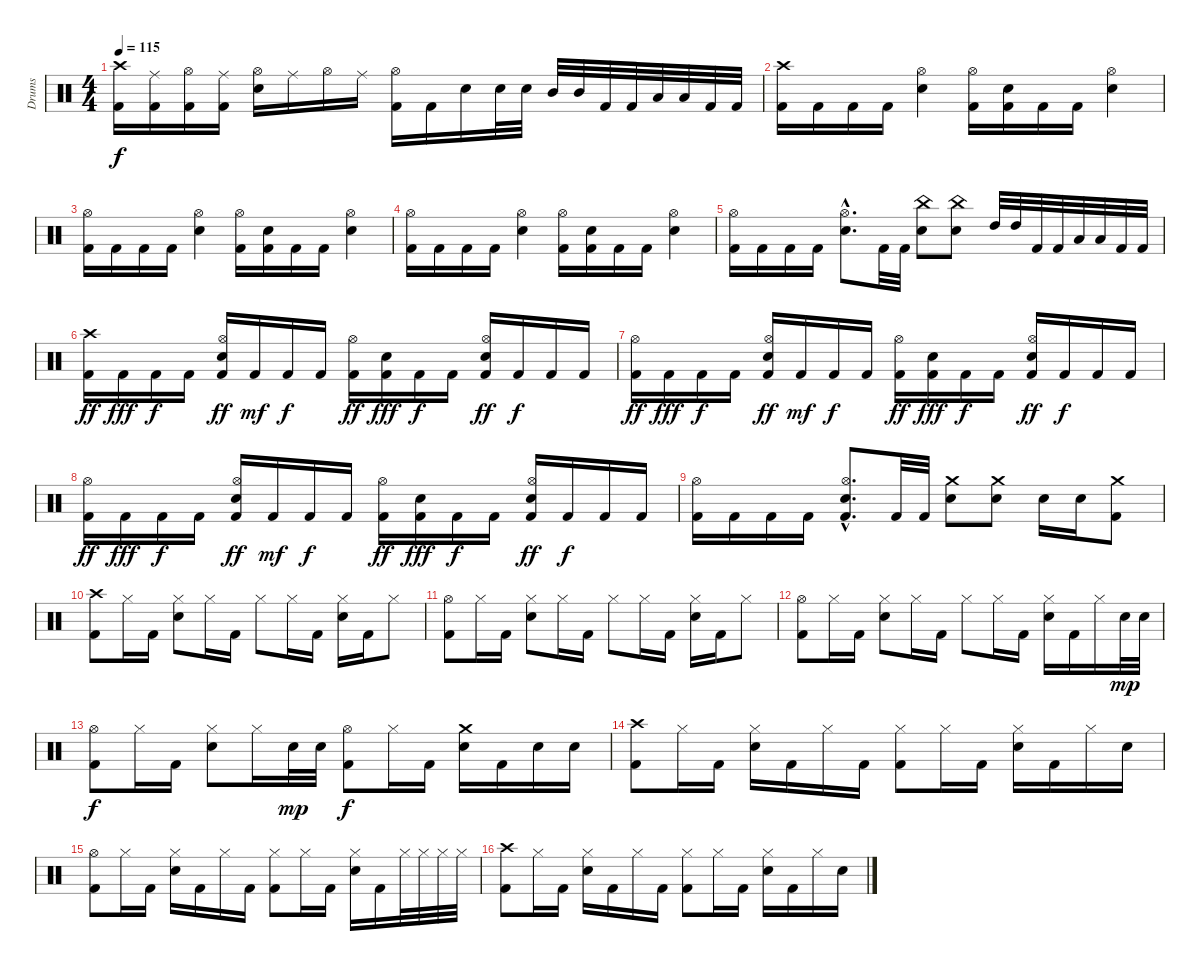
\track ("Drums" "Drums") {instrument percussion}
\staff {score}
\articulation defaults
\ts (4 4)
\tempo 115
\clef neutral
\ks c
("Crash high (hit)" "Kick (hit) 2").16{dy f} ("Ride (middle)" "Kick (hit) 2").16 ("Hi-Hat (open)" "Kick (hit) 2").16 ("Ride (middle)" "Kick (hit) 2").16 ("Hi-Hat (open)" "Electric Snare (hit)").16 "Ride (middle)".16 "Hi-Hat (open)".16 "Ride (middle)".16 ("Hi-Hat (open)" "Kick (hit) 2").16 "Kick (hit) 2".16 "Electric Snare (hit)".16 "Electric Snare (hit)".32 "Electric Snare (hit)".32 "Mid Tom (hit)".32 "Mid Tom (hit)".32 "Kick (hit) 2".32 "Kick (hit) 2".32 "Low Tom (hit)".32 "Low Tom (hit)".32 "Kick (hit) 2".32 "Kick (hit) 2".32 |
("Crash high (hit)" "Kick (hit) 2").16 "Kick (hit) 2".16 "Kick (hit) 2".16 "Kick (hit) 2".16 ("Hi-Hat (open)" "Electric Snare (hit)").4 ("Hi-Hat (open)" "Kick (hit) 2").16 ("Electric Snare (hit)" "Kick (hit) 2").16 "Kick (hit) 2".16 "Kick (hit) 2".16 ("Hi-Hat (open)" "Electric Snare (hit)").4 |
("Hi-Hat (open)" "Kick (hit) 2").16 "Kick (hit) 2".16 "Kick (hit) 2".16 "Kick (hit) 2".16 ("Hi-Hat (open)" "Electric Snare (hit)").4 ("Hi-Hat (open)" "Kick (hit) 2").16 ("Electric Snare (hit)" "Kick (hit) 2").16 "Kick (hit) 2".16 "Kick (hit) 2".16 ("Hi-Hat (open)" "Electric Snare (hit)").4 |
("Hi-Hat (open)" "Kick (hit) 2").16 "Kick (hit) 2".16 "Kick (hit) 2".16 "Kick (hit) 2".16 ("Hi-Hat (open)" "Electric Snare (hit)").4 ("Hi-Hat (open)" "Kick (hit) 2").16 ("Electric Snare (hit)" "Kick (hit) 2").16 "Kick (hit) 2".16 "Kick (hit) 2".16 ("Hi-Hat (open)" "Electric Snare (hit)").4 |
("Hi-Hat (open)" "Kick (hit) 2").16 "Kick (hit) 2".16 "Kick (hit) 2".16 "Kick (hit) 2".16 ("Hi-Hat (open)"{hac} "Electric Snare (hit)"{hac}).8{d} "Kick (hit) 2".32 "Kick (hit) 2".32 ("China (hit)" "Electric Snare (hit)").8 ("China (hit)" "Electric Snare (hit)").8 "High Tom (hit)".32 "High Tom (hit)".32 "Kick (hit) 2".32 "Kick (hit) 2".32 "Low Tom (hit)".32 "Low Tom (hit)".32 "Kick (hit) 2".32 "Kick (hit) 2".32 |
("Crash high (hit)" "Kick (hit) 2").16{dy ff} "Kick (hit) 2".16{dy fff} "Kick (hit) 2".16{dy f} "Kick (hit) 2".16 ("Hi-Hat (open)" "Electric Snare (hit)" "Kick (hit) 2").16{dy ff} "Kick (hit) 2".16{dy mf} "Kick (hit) 2".16{dy f} "Kick (hit) 2".16 ("Hi-Hat (open)" "Kick (hit) 2").16{dy ff} ("Electric Snare (hit)" "Kick (hit) 2").16{dy fff} "Kick (hit) 2".16{dy f} "Kick (hit) 2".16 ("Hi-Hat (open)" "Electric Snare (hit)" "Kick (hit) 2").16{dy ff} "Kick (hit) 2".16{dy f} "Kick (hit) 2".16 "Kick (hit) 2".16 |
("Hi-Hat (open)" "Kick (hit) 2").16{dy ff} "Kick (hit) 2".16{dy fff} "Kick (hit) 2".16{dy f} "Kick (hit) 2".16 ("Hi-Hat (open)" "Electric Snare (hit)" "Kick (hit) 2").16{dy ff} "Kick (hit) 2".16{dy mf} "Kick (hit) 2".16{dy f} "Kick (hit) 2".16 ("Hi-Hat (open)" "Kick (hit) 2").16{dy ff} ("Electric Snare (hit)" "Kick (hit) 2").16{dy fff} "Kick (hit) 2".16{dy f} "Kick (hit) 2".16 ("Hi-Hat (open)" "Electric Snare (hit)" "Kick (hit) 2").16{dy ff} "Kick (hit) 2".16{dy f} "Kick (hit) 2".16 "Kick (hit) 2".16 |
("Hi-Hat (open)" "Kick (hit) 2").16{dy ff} "Kick (hit) 2".16{dy fff} "Kick (hit) 2".16{dy f} "Kick (hit) 2".16 ("Hi-Hat (open)" "Electric Snare (hit)" "Kick (hit) 2").16{dy ff} "Kick (hit) 2".16{dy mf} "Kick (hit) 2".16{dy f} "Kick (hit) 2".16 ("Hi-Hat (open)" "Kick (hit) 2").16{dy ff} ("Electric Snare (hit)" "Kick (hit) 2").16{dy fff} "Kick (hit) 2".16{dy f} "Kick (hit) 2".16 ("Hi-Hat (open)" "Electric Snare (hit)" "Kick (hit) 2").16{dy ff} "Kick (hit) 2".16{dy f} "Kick (hit) 2".16 "Kick (hit) 2".16 |
("Hi-Hat (open)" "Kick (hit) 2").16 "Kick (hit) 2".16 "Kick (hit) 2".16 "Kick (hit) 2".16 ("Hi-Hat (open)"{hac} "Electric Snare (hit)"{hac} "Kick (hit) 2"{hac}).8{d} "Kick (hit) 2".32 "Kick (hit) 2".32 ("Crash medium (hit)" "Electric Snare (hit)").8 ("Crash medium (hit)" "Electric Snare (hit)").8 "Electric Snare (hit)".16 "Electric Snare (hit)".16 ("Crash medium (hit)" "Kick (hit) 2").8 |
("Crash high (hit)" "Kick (hit) 2").8 "Hi-Hat (closed)".16 "Kick (hit) 2".16 ("Hi-Hat (closed)" "Electric Snare (hit)").8 "Hi-Hat (closed)".16 "Kick (hit) 2".16 "Hi-Hat (closed)".8 "Hi-Hat (closed)".16 "Kick (hit) 2".16 ("Hi-Hat (closed)" "Electric Snare (hit)").16 "Kick (hit) 2".16 "Hi-Hat (closed)".8 |
("Hi-Hat (open)" "Kick (hit) 2").8 "Hi-Hat (closed)".16 "Kick (hit) 2".16 ("Hi-Hat (closed)" "Electric Snare (hit)").8 "Hi-Hat (closed)".16 "Kick (hit) 2".16 "Hi-Hat (closed)".8 "Hi-Hat (closed)".16 "Kick (hit) 2".16 ("Hi-Hat (closed)" "Electric Snare (hit)").16 "Kick (hit) 2".16 "Hi-Hat (closed)".8 |
("Hi-Hat (open)" "Kick (hit) 2").8 "Hi-Hat (closed)".16 "Kick (hit) 2".16 ("Hi-Hat (closed)" "Electric Snare (hit)").8 "Hi-Hat (closed)".16 "Kick (hit) 2".16 "Hi-Hat (closed)".8 "Hi-Hat (closed)".16 "Kick (hit) 2".16 ("Hi-Hat (closed)" "Electric Snare (hit)").16 "Kick (hit) 2".16 "Hi-Hat (closed)".16 "Electric Snare (hit)".32{dy mp} "Electric Snare (hit)".32 |
("Hi-Hat (open)" "Kick (hit) 2").8{dy f} "Hi-Hat (closed)".16 "Kick (hit) 2".16 ("Hi-Hat (closed)" "Electric Snare (hit)").8 "Hi-Hat (closed)".16 "Electric Snare (hit)".32{dy mp} "Electric Snare (hit)".32 ("Hi-Hat (open)" "Kick (hit) 2").8{dy f} "Hi-Hat (closed)".16 "Kick (hit) 2".16 ("Crash medium (hit)" "Electric Snare (hit)").16 "Kick (hit) 2".16 "Electric Snare (hit)".16 "Electric Snare (hit)".16 |
("Crash high (hit)" "Kick (hit) 2").8 "Hi-Hat (closed)".16 "Kick (hit) 2".16 ("Hi-Hat (closed)" "Electric Snare (hit)").16 "Kick (hit) 2".16 "Hi-Hat (closed)".16 "Kick (hit) 2".16 ("Hi-Hat (closed)" "Kick (hit) 2").8 "Hi-Hat (closed)".16 "Kick (hit) 2".16 ("Hi-Hat (closed)" "Electric Snare (hit)").16 "Kick (hit) 2".16 "Hi-Hat (closed)".16 "Electric Snare (hit)".16 |
("Hi-Hat (open)" "Kick (hit) 2").8 "Hi-Hat (closed)".16 "Kick (hit) 2".16 ("Hi-Hat (closed)" "Electric Snare (hit)").16 "Kick (hit) 2".16 "Hi-Hat (closed)".16 "Kick (hit) 2".16 ("Hi-Hat (closed)" "Kick (hit) 2").8 "Hi-Hat (closed)".16 "Kick (hit) 2".16 ("Hi-Hat (closed)" "Electric Snare (hit)").16 "Kick (hit) 2".16 "Hi-Hat (closed)".32 "Hi-Hat (closed)".32 "Hi-Hat (closed)".32 "Hi-Hat (closed)".32 |
("Crash high (hit)" "Kick (hit) 2").8 "Hi-Hat (closed)".16 "Kick (hit) 2".16 ("Hi-Hat (closed)" "Electric Snare (hit)").16 "Kick (hit) 2".16 "Hi-Hat (closed)".16 "Kick (hit) 2".16 ("Hi-Hat (closed)" "Kick (hit) 2").8 "Hi-Hat (closed)".16 "Kick (hit) 2".16 ("Hi-Hat (closed)" "Electric Snare (hit)").16 "Kick (hit) 2".16 "Hi-Hat (closed)".16 "Electric Snare (hit)".16
